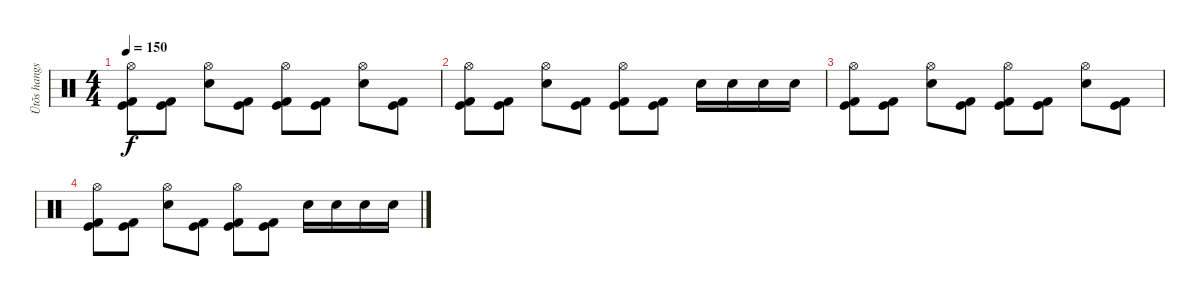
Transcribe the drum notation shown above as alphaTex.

\track ("Ütõs hangszer" "Ütõs hangs") {instrument percussion}
\staff {score}
\articulation defaults
\ts (4 4)
\tempo 150
\clef neutral
\ks c
("Hi-Hat (open)" "Kick (hit)" "Kick (hit) 2").8{dy f} ("Kick (hit)" "Kick (hit) 2").8 ("Hi-Hat (open)" "Electric Snare (hit)").8 ("Kick (hit)" "Kick (hit) 2").8 ("Hi-Hat (open)" "Kick (hit)" "Kick (hit) 2").8 ("Kick (hit)" "Kick (hit) 2").8 ("Hi-Hat (open)" "Electric Snare (hit)").8 ("Kick (hit)" "Kick (hit) 2").8 |
("Hi-Hat (open)" "Kick (hit)" "Kick (hit) 2").8 ("Kick (hit)" "Kick (hit) 2").8 ("Hi-Hat (open)" "Electric Snare (hit)").8 ("Kick (hit)" "Kick (hit) 2").8 ("Hi-Hat (open)" "Kick (hit)" "Kick (hit) 2").8 ("Kick (hit)" "Kick (hit) 2").8 "Electric Snare (hit)".16 "Electric Snare (hit)".16 "Electric Snare (hit)".16 "Electric Snare (hit)".16 |
("Hi-Hat (open)" "Kick (hit)" "Kick (hit) 2").8 ("Kick (hit)" "Kick (hit) 2").8 ("Hi-Hat (open)" "Electric Snare (hit)").8 ("Kick (hit)" "Kick (hit) 2").8 ("Hi-Hat (open)" "Kick (hit)" "Kick (hit) 2").8 ("Kick (hit)" "Kick (hit) 2").8 ("Hi-Hat (open)" "Electric Snare (hit)").8 ("Kick (hit)" "Kick (hit) 2").8 |
("Hi-Hat (open)" "Kick (hit)" "Kick (hit) 2").8 ("Kick (hit)" "Kick (hit) 2").8 ("Hi-Hat (open)" "Electric Snare (hit)").8 ("Kick (hit)" "Kick (hit) 2").8 ("Hi-Hat (open)" "Kick (hit)" "Kick (hit) 2").8 ("Kick (hit)" "Kick (hit) 2").8 "Electric Snare (hit)".16 "Electric Snare (hit)".16 "Electric Snare (hit)".16 "Electric Snare (hit)".16
